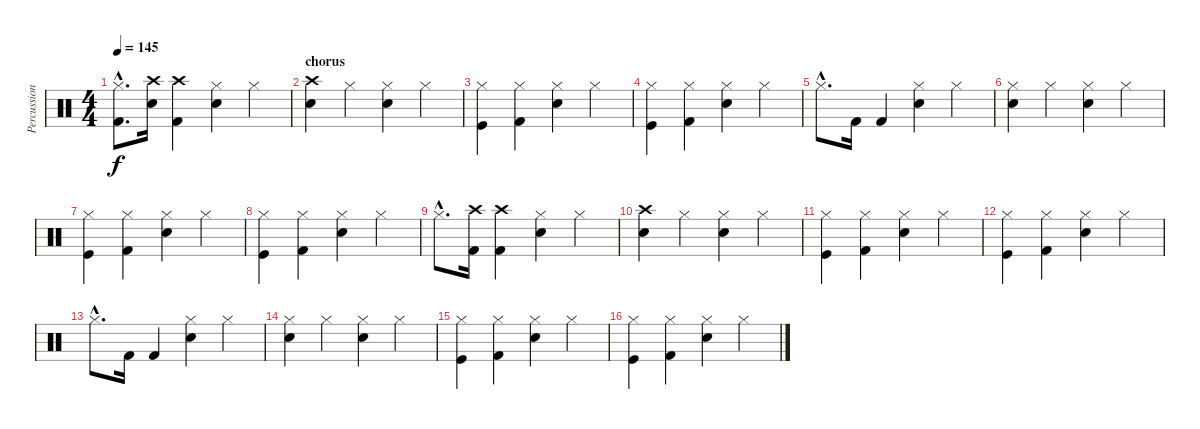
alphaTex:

\track ("Percussion" "Percussion") {instrument percussion}
\staff {score}
\articulation defaults
\ts (4 4)
\tempo 145
\clef neutral
\ks c
("Hi-Hat (closed)"{hac} "Kick (hit) 2"{hac}).8{d dy f} ("Crash high (hit)" "Snare (hit) 2").16 ("Crash high (hit)" "Kick (hit) 2").4 ("Hi-Hat (closed)" "Snare (hit) 2").4 "Hi-Hat (closed)".4 |
\section ("" "chorus")
("Crash high (hit)" "Snare (hit) 2").4 "Hi-Hat (closed)".4 ("Hi-Hat (closed)" "Snare (hit) 2").4 "Hi-Hat (closed)".4 |
("Hi-Hat (closed)" "Kick (hit)").4 ("Hi-Hat (closed)" "Kick (hit) 2").4 ("Hi-Hat (closed)" "Snare (hit) 2").4 "Hi-Hat (closed)".4 |
("Hi-Hat (closed)" "Kick (hit)").4 ("Hi-Hat (closed)" "Kick (hit) 2").4 ("Hi-Hat (closed)" "Snare (hit) 2").4 "Hi-Hat (closed)".4 |
"Hi-Hat (closed)"{hac}.8{d} "Kick (hit) 2".16 "Kick (hit) 2".4 ("Hi-Hat (closed)" "Snare (hit) 2").4 "Hi-Hat (closed)".4 |
("Hi-Hat (closed)" "Snare (hit) 2").4 "Hi-Hat (closed)".4 ("Hi-Hat (closed)" "Snare (hit) 2").4 "Hi-Hat (closed)".4 |
("Hi-Hat (closed)" "Kick (hit)").4 ("Hi-Hat (closed)" "Kick (hit) 2").4 ("Hi-Hat (closed)" "Snare (hit) 2").4 "Hi-Hat (closed)".4 |
("Hi-Hat (closed)" "Kick (hit)").4 ("Hi-Hat (closed)" "Kick (hit) 2").4 ("Hi-Hat (closed)" "Snare (hit) 2").4 "Hi-Hat (closed)".4 |
"Hi-Hat (closed)"{hac}.8{d} ("Crash high (hit)" "Kick (hit) 2").16 ("Crash high (hit)" "Kick (hit) 2").4 ("Hi-Hat (closed)" "Snare (hit) 2").4 "Hi-Hat (closed)".4 |
("Crash high (hit)" "Snare (hit) 2").4 "Hi-Hat (closed)".4 ("Hi-Hat (closed)" "Snare (hit) 2").4 "Hi-Hat (closed)".4 |
("Hi-Hat (closed)" "Kick (hit)").4 ("Hi-Hat (closed)" "Kick (hit) 2").4 ("Hi-Hat (closed)" "Snare (hit) 2").4 "Hi-Hat (closed)".4 |
("Hi-Hat (closed)" "Kick (hit)").4 ("Hi-Hat (closed)" "Kick (hit) 2").4 ("Hi-Hat (closed)" "Snare (hit) 2").4 "Hi-Hat (closed)".4 |
"Hi-Hat (closed)"{hac}.8{d} "Kick (hit) 2".16 "Kick (hit) 2".4 ("Hi-Hat (closed)" "Snare (hit) 2").4 "Hi-Hat (closed)".4 |
("Hi-Hat (closed)" "Snare (hit) 2").4 "Hi-Hat (closed)".4 ("Hi-Hat (closed)" "Snare (hit) 2").4 "Hi-Hat (closed)".4 |
("Hi-Hat (closed)" "Kick (hit)").4 ("Hi-Hat (closed)" "Kick (hit) 2").4 ("Hi-Hat (closed)" "Snare (hit) 2").4 "Hi-Hat (closed)".4 |
("Hi-Hat (closed)" "Kick (hit)").4 ("Hi-Hat (closed)" "Kick (hit) 2").4 ("Hi-Hat (closed)" "Snare (hit) 2").4 "Hi-Hat (closed)".4
